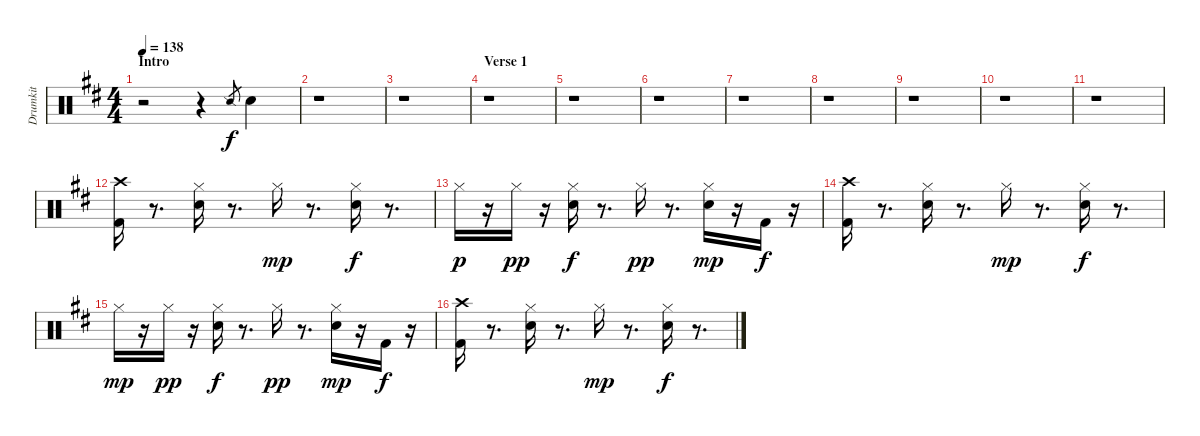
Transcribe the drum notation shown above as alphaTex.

\track ("Drumkit" "Drumkit") {instrument percussion}
\staff {score}
\articulation defaults
\ts (4 4)
\section ("" "Intro")
\tempo 138
\clef neutral
\ks d
r.2{dy f} r.4 "Snare (side stick) 2".8{gr} "Snare (hit) 2".4 |
r.1 |
r.1 |
\section ("" "Verse 1")
r.1 |
r.1 |
r.1 |
r.1 |
r.1 |
r.1 |
r.1 |
r.1 |
("Kick (hit) 2" "Crash high (hit)").16 r.8{d} ("Snare (hit) 2" "Hi-Hat (closed)").16 r.8{d} "Hi-Hat (closed)".16{dy mp} r.8{d} ("Snare (hit) 2" "Hi-Hat (closed)").16{dy f} r.8{d} |
"Hi-Hat (closed)".16{dy p} r.16 "Hi-Hat (closed)".16{dy pp} r.16 ("Snare (hit) 2" "Hi-Hat (closed)").16{dy f} r.8{d} "Hi-Hat (closed)".16{dy pp} r.8{d} ("Snare (hit) 2" "Hi-Hat (closed)").16{dy mp} r.16 "Kick (hit) 2".16{dy f} r.16 |
("Kick (hit) 2" "Crash high (hit)").16 r.8{d} ("Snare (hit) 2" "Hi-Hat (closed)").16 r.8{d} "Hi-Hat (closed)".16{dy mp} r.8{d} ("Snare (hit) 2" "Hi-Hat (closed)").16{dy f} r.8{d} |
"Hi-Hat (closed)".16{dy mp} r.16 "Hi-Hat (closed)".16{dy pp} r.16 ("Snare (hit) 2" "Hi-Hat (closed)").16{dy f} r.8{d} "Hi-Hat (closed)".16{dy pp} r.8{d} ("Snare (hit) 2" "Hi-Hat (closed)").16{dy mp} r.16 "Kick (hit) 2".16{dy f} r.16 |
("Kick (hit) 2" "Crash high (hit)").16 r.8{d} ("Snare (hit) 2" "Hi-Hat (closed)").16 r.8{d} "Hi-Hat (closed)".16{dy mp} r.8{d} ("Snare (hit) 2" "Hi-Hat (closed)").16{dy f} r.8{d}
